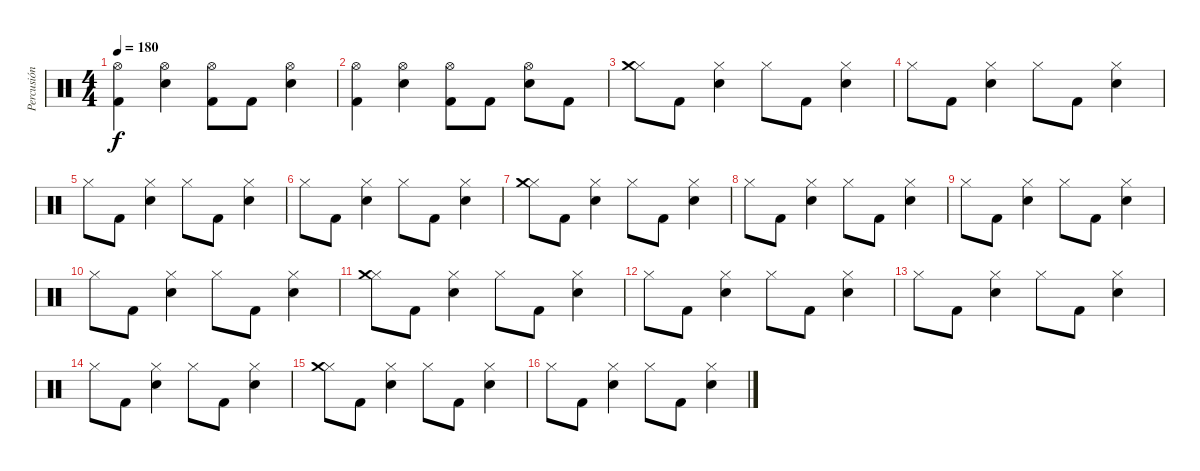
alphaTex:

\track ("Percusión" "Percusión") {instrument percussion}
\staff {score}
\articulation defaults
\ts (4 4)
\tempo 180
\clef neutral
\ks c
("Kick (hit) 2" "Hi-Hat (open)").4{dy f} ("Electric Snare (hit)" "Hi-Hat (open)").4 ("Kick (hit) 2" "Hi-Hat (open)").8 "Kick (hit) 2".8 ("Electric Snare (hit)" "Hi-Hat (open)").4 |
("Kick (hit) 2" "Hi-Hat (open)").4 ("Electric Snare (hit)" "Hi-Hat (open)").4 ("Kick (hit) 2" "Hi-Hat (open)").8 "Kick (hit) 2".8 ("Electric Snare (hit)" "Hi-Hat (open)").8 "Kick (hit) 2".8 |
("Hi-Hat (closed)" "Crash medium (hit)").8 "Kick (hit) 2".8 ("Electric Snare (hit)" "Hi-Hat (closed)").4 "Hi-Hat (closed)".8 "Kick (hit) 2".8 ("Electric Snare (hit)" "Hi-Hat (closed)").4 |
"Hi-Hat (closed)".8 "Kick (hit) 2".8 ("Electric Snare (hit)" "Hi-Hat (closed)").4 "Hi-Hat (closed)".8 "Kick (hit) 2".8 ("Electric Snare (hit)" "Hi-Hat (closed)").4 |
"Hi-Hat (closed)".8 "Kick (hit) 2".8 ("Electric Snare (hit)" "Hi-Hat (closed)").4 "Hi-Hat (closed)".8 "Kick (hit) 2".8 ("Electric Snare (hit)" "Hi-Hat (closed)").4 |
"Hi-Hat (closed)".8 "Kick (hit) 2".8 ("Electric Snare (hit)" "Hi-Hat (closed)").4 "Hi-Hat (closed)".8 "Kick (hit) 2".8 ("Electric Snare (hit)" "Hi-Hat (closed)").4 |
("Hi-Hat (closed)" "Crash medium (hit)").8 "Kick (hit) 2".8 ("Electric Snare (hit)" "Hi-Hat (closed)").4 "Hi-Hat (closed)".8 "Kick (hit) 2".8 ("Electric Snare (hit)" "Hi-Hat (closed)").4 |
"Hi-Hat (closed)".8 "Kick (hit) 2".8 ("Electric Snare (hit)" "Hi-Hat (closed)").4 "Hi-Hat (closed)".8 "Kick (hit) 2".8 ("Electric Snare (hit)" "Hi-Hat (closed)").4 |
"Hi-Hat (closed)".8 "Kick (hit) 2".8 ("Electric Snare (hit)" "Hi-Hat (closed)").4 "Hi-Hat (closed)".8 "Kick (hit) 2".8 ("Electric Snare (hit)" "Hi-Hat (closed)").4 |
"Hi-Hat (closed)".8 "Kick (hit) 2".8 ("Electric Snare (hit)" "Hi-Hat (closed)").4 "Hi-Hat (closed)".8 "Kick (hit) 2".8 ("Electric Snare (hit)" "Hi-Hat (closed)").4 |
("Hi-Hat (closed)" "Crash medium (hit)").8 "Kick (hit) 2".8 ("Electric Snare (hit)" "Hi-Hat (closed)").4 "Hi-Hat (closed)".8 "Kick (hit) 2".8 ("Electric Snare (hit)" "Hi-Hat (closed)").4 |
"Hi-Hat (closed)".8 "Kick (hit) 2".8 ("Electric Snare (hit)" "Hi-Hat (closed)").4 "Hi-Hat (closed)".8 "Kick (hit) 2".8 ("Electric Snare (hit)" "Hi-Hat (closed)").4 |
"Hi-Hat (closed)".8 "Kick (hit) 2".8 ("Electric Snare (hit)" "Hi-Hat (closed)").4 "Hi-Hat (closed)".8 "Kick (hit) 2".8 ("Electric Snare (hit)" "Hi-Hat (closed)").4 |
"Hi-Hat (closed)".8 "Kick (hit) 2".8 ("Electric Snare (hit)" "Hi-Hat (closed)").4 "Hi-Hat (closed)".8 "Kick (hit) 2".8 ("Electric Snare (hit)" "Hi-Hat (closed)").4 |
("Hi-Hat (closed)" "Crash medium (hit)").8 "Kick (hit) 2".8 ("Electric Snare (hit)" "Hi-Hat (closed)").4 "Hi-Hat (closed)".8 "Kick (hit) 2".8 ("Electric Snare (hit)" "Hi-Hat (closed)").4 |
"Hi-Hat (closed)".8 "Kick (hit) 2".8 ("Electric Snare (hit)" "Hi-Hat (closed)").4 "Hi-Hat (closed)".8 "Kick (hit) 2".8 ("Electric Snare (hit)" "Hi-Hat (closed)").4
